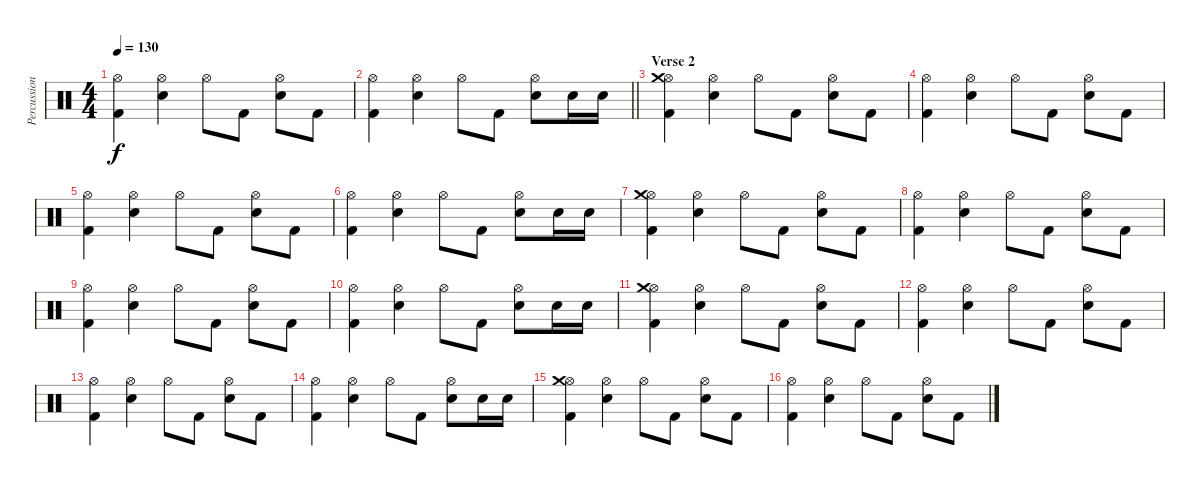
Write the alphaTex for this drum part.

\track ("Percussion" "Percussion") {instrument percussion}
\staff {score}
\articulation defaults
\ts (4 4)
\tempo 130
\clef neutral
\ks c
("Hi-Hat (open)" "Kick (hit) 2").4{dy f} ("Hi-Hat (open)" "Electric Snare (hit)").4 "Hi-Hat (open)".8 "Kick (hit) 2".8 ("Hi-Hat (open)" "Electric Snare (hit)").8 "Kick (hit) 2".8 |
\barLineRight lightlight
("Hi-Hat (open)" "Kick (hit) 2").4 ("Hi-Hat (open)" "Electric Snare (hit)").4 "Hi-Hat (open)".8 "Kick (hit) 2".8 ("Hi-Hat (open)" "Electric Snare (hit)").8 "Electric Snare (hit)".16 "Electric Snare (hit)".16 |
\section ("" "Verse 2")
("Hi-Hat (open)" "Crash medium (hit)" "Kick (hit) 2").4 ("Hi-Hat (open)" "Electric Snare (hit)").4 "Hi-Hat (open)".8 "Kick (hit) 2".8 ("Hi-Hat (open)" "Electric Snare (hit)").8 "Kick (hit) 2".8 |
("Hi-Hat (open)" "Kick (hit) 2").4 ("Hi-Hat (open)" "Electric Snare (hit)").4 "Hi-Hat (open)".8 "Kick (hit) 2".8 ("Hi-Hat (open)" "Electric Snare (hit)").8 "Kick (hit) 2".8 |
("Hi-Hat (open)" "Kick (hit) 2").4 ("Hi-Hat (open)" "Electric Snare (hit)").4 "Hi-Hat (open)".8 "Kick (hit) 2".8 ("Hi-Hat (open)" "Electric Snare (hit)").8 "Kick (hit) 2".8 |
("Hi-Hat (open)" "Kick (hit) 2").4 ("Hi-Hat (open)" "Electric Snare (hit)").4 "Hi-Hat (open)".8 "Kick (hit) 2".8 ("Hi-Hat (open)" "Electric Snare (hit)").8 "Electric Snare (hit)".16 "Electric Snare (hit)".16 |
("Hi-Hat (open)" "Crash medium (hit)" "Kick (hit) 2").4 ("Hi-Hat (open)" "Electric Snare (hit)").4 "Hi-Hat (open)".8 "Kick (hit) 2".8 ("Hi-Hat (open)" "Electric Snare (hit)").8 "Kick (hit) 2".8 |
("Hi-Hat (open)" "Kick (hit) 2").4 ("Hi-Hat (open)" "Electric Snare (hit)").4 "Hi-Hat (open)".8 "Kick (hit) 2".8 ("Hi-Hat (open)" "Electric Snare (hit)").8 "Kick (hit) 2".8 |
("Hi-Hat (open)" "Kick (hit) 2").4 ("Hi-Hat (open)" "Electric Snare (hit)").4 "Hi-Hat (open)".8 "Kick (hit) 2".8 ("Hi-Hat (open)" "Electric Snare (hit)").8 "Kick (hit) 2".8 |
("Hi-Hat (open)" "Kick (hit) 2").4 ("Hi-Hat (open)" "Electric Snare (hit)").4 "Hi-Hat (open)".8 "Kick (hit) 2".8 ("Hi-Hat (open)" "Electric Snare (hit)").8 "Electric Snare (hit)".16 "Electric Snare (hit)".16 |
("Hi-Hat (open)" "Crash medium (hit)" "Kick (hit) 2").4 ("Hi-Hat (open)" "Electric Snare (hit)").4 "Hi-Hat (open)".8 "Kick (hit) 2".8 ("Hi-Hat (open)" "Electric Snare (hit)").8 "Kick (hit) 2".8 |
("Hi-Hat (open)" "Kick (hit) 2").4 ("Hi-Hat (open)" "Electric Snare (hit)").4 "Hi-Hat (open)".8 "Kick (hit) 2".8 ("Hi-Hat (open)" "Electric Snare (hit)").8 "Kick (hit) 2".8 |
("Hi-Hat (open)" "Kick (hit) 2").4 ("Hi-Hat (open)" "Electric Snare (hit)").4 "Hi-Hat (open)".8 "Kick (hit) 2".8 ("Hi-Hat (open)" "Electric Snare (hit)").8 "Kick (hit) 2".8 |
("Hi-Hat (open)" "Kick (hit) 2").4 ("Hi-Hat (open)" "Electric Snare (hit)").4 "Hi-Hat (open)".8 "Kick (hit) 2".8 ("Hi-Hat (open)" "Electric Snare (hit)").8 "Electric Snare (hit)".16 "Electric Snare (hit)".16 |
("Hi-Hat (open)" "Crash medium (hit)" "Kick (hit) 2").4 ("Hi-Hat (open)" "Electric Snare (hit)").4 "Hi-Hat (open)".8 "Kick (hit) 2".8 ("Hi-Hat (open)" "Electric Snare (hit)").8 "Kick (hit) 2".8 |
("Hi-Hat (open)" "Kick (hit) 2").4 ("Hi-Hat (open)" "Electric Snare (hit)").4 "Hi-Hat (open)".8 "Kick (hit) 2".8 ("Hi-Hat (open)" "Electric Snare (hit)").8 "Kick (hit) 2".8
